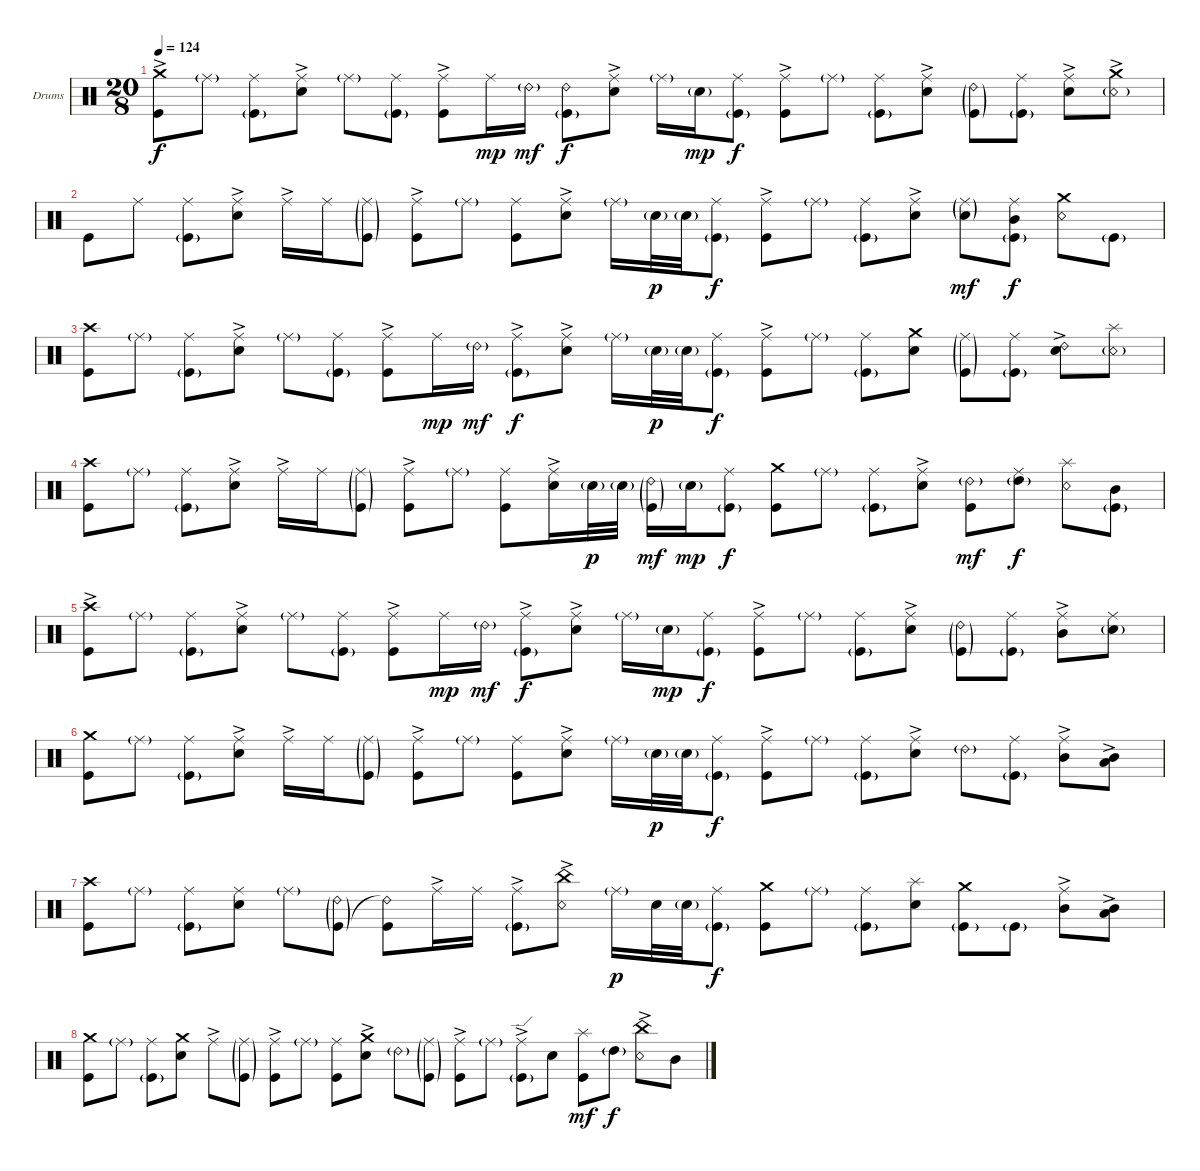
\bracketExtendMode groupsimilarinstruments
\firstSystemTrackNameOrientation horizontal
\otherSystemsTrackNameOrientation horizontal
\track ("Drumkit" "Drums") {instrument percussion}
\staff {score}
\articulation defaults
\ts (20 8)
\tempo 124
\clef neutral
\ks c
("Kick (hit)" "Crash medium (hit)"{ac}).8{dy f} "Ride (middle)"{g}.8 ("Ride (middle)" "Kick (hit)"{g}).8 ("Ride (middle)"{ac} "Snare (hit) 2").8 "Ride (middle)"{g}.8 ("Ride (middle)" "Kick (hit)"{g}).8 ("Ride (middle)"{ac} "Kick (hit)").8 "Ride (middle)".16{dy mp} "Ride (bell) 2"{g}.16{dy mf} ("Ride (bell) 2" "Kick (hit)"{g}).8{dy f} ("Ride (middle)"{ac} "Snare (hit) 2").8 "Ride (middle)"{g}.16 "Snare (hit) 2"{g}.16{dy mp} ("Ride (middle)" "Kick (hit)"{g}).8{dy f} ("Kick (hit)" "Ride (middle)"{ac}).8 "Ride (middle)"{g}.8 ("Ride (middle)" "Kick (hit)"{g}).8 ("Ride (middle)"{ac} "Snare (hit) 2").8 ("Ride (bell) 2"{g} "Kick (hit)"{g}).8 ("Ride (middle)" "Kick (hit)"{g}).8 ("Ride (middle)"{ac} "Snare (hit) 2").8 ("Snare (rim shot)"{g} "Crash medium (hit)"{ac}).8 |
"Kick (hit)".8 "Ride (middle)".8 ("Ride (middle)" "Kick (hit)"{g}).8 ("Ride (middle)"{ac} "Snare (hit) 2").8 "Ride (middle)"{ac}.16 "Ride (middle)".16 ("Ride (middle)"{g} "Kick (hit)"{g}).8 ("Ride (middle)"{ac} "Kick (hit)").8 "Ride (middle)"{g}.8 ("Ride (middle)" "Kick (hit)").8 ("Ride (middle)"{ac} "Snare (hit) 2").8 "Ride (middle)"{g}.16 "Snare (hit) 2"{g}.32{dy p} "Snare (hit) 2"{g}.32 ("Ride (middle)" "Kick (hit)"{g}).8{dy f} ("Kick (hit)" "Ride (middle)"{ac}).8 "Ride (middle)"{g}.8 ("Ride (middle)" "Kick (hit)"{g}).8 ("Ride (middle)"{ac} "Snare (hit) 2").8 ("Ride (middle)"{g} "Snare (hit) 2"{g}).8{dy mf} ("Ride (middle)" "Kick (hit)"{g} "Mid Tom (hit)").8{dy f} ("Snare (rim shot)" "Crash medium (hit)").8 "Kick (hit)"{g}.8 |
("Kick (hit)" "Crash high (hit)").8 "Ride (middle)"{g}.8 ("Ride (middle)" "Kick (hit)"{g}).8 ("Ride (middle)"{ac} "Snare (hit) 2").8 "Ride (middle)"{g}.8 ("Ride (middle)" "Kick (hit)"{g}).8 ("Ride (middle)"{ac} "Kick (hit)").8 "Ride (middle)".16{dy mp} "Ride (bell) 2"{g}.16{dy mf} ("Ride (middle)"{ac} "Kick (hit)"{g}).8{dy f} ("Ride (middle)"{ac} "Snare (hit) 2").8 "Ride (middle)"{g}.16 "Snare (hit) 2"{g}.32{dy p} "Snare (hit) 2"{g}.32 ("Ride (middle)" "Kick (hit)"{g}).8{dy f} ("Kick (hit)" "Ride (middle)"{ac}).8 "Ride (middle)"{g}.8 ("Ride (middle)" "Kick (hit)"{g}).8 ("Snare (hit) 2" "Crash medium (hit)").8 ("Ride (middle)"{g} "Kick (hit)"{g}).8 ("Ride (middle)" "Kick (hit)"{g}).8 ("Ride (bell) 2"{ac} "Snare (hit) 2").8 ("Snare (rim shot)"{g} "Splash (hit)").8 |
("Kick (hit)" "Crash high (hit)").8 "Ride (middle)"{g}.8 ("Ride (middle)" "Kick (hit)"{g}).8 ("Ride (middle)"{ac} "Snare (hit) 2").8 "Ride (middle)"{ac}.16 "Ride (middle)".16 ("Ride (middle)"{g} "Kick (hit)"{g}).8 ("Ride (middle)"{ac} "Kick (hit)").8 "Ride (middle)"{g}.8 ("Ride (middle)" "Kick (hit)").8 ("Ride (middle)"{ac} "Snare (hit) 2").16 "Snare (hit) 2"{g}.32{dy p} "Snare (hit) 2"{g}.32 ("Ride (bell) 2"{g} "Kick (hit)"{g}).16{dy mf} "Snare (hit) 2"{g}.16{dy mp} ("Ride (middle)" "Kick (hit)"{g}).8{dy f} ("Crash medium (hit)" "Kick (hit)").8 "Ride (middle)"{g}.8 ("Ride (middle)" "Kick (hit)"{g}).8 ("Ride (middle)"{ac} "Snare (hit) 2").8 ("Ride (bell) 2"{g} "Kick (hit)").8{dy mf} ("High Tom (hit)"{g} "Ride (middle)").8{dy f} ("Snare (rim shot)" "Splash (hit)").8 ("Kick (hit)"{g} "Mid Tom (hit)").8 |
("Kick (hit)" "Crash high (hit)"{ac}).8 "Ride (middle)"{g}.8 ("Ride (middle)" "Kick (hit)"{g}).8 ("Ride (middle)"{ac} "Snare (hit) 2").8 "Ride (middle)"{g}.8 ("Ride (middle)" "Kick (hit)"{g}).8 ("Ride (middle)"{ac} "Kick (hit)").8 "Ride (middle)".16{dy mp} "Ride (bell) 2"{g}.16{dy mf} ("Ride (middle)"{ac} "Kick (hit)"{g}).8{dy f} ("Ride (middle)"{ac} "Snare (hit) 2").8 "Ride (middle)"{g}.16 "Snare (hit) 2"{g}.16{dy mp} ("Ride (middle)" "Kick (hit)"{g}).8{dy f} ("Kick (hit)" "Ride (middle)"{ac}).8 "Ride (middle)"{g}.8 ("Ride (middle)" "Kick (hit)"{g}).8 ("Ride (middle)"{ac} "Snare (hit) 2").8 ("Ride (bell) 2"{g} "Kick (hit)"{g}).8 ("Ride (middle)" "Kick (hit)"{g}).8 ("Ride (middle)"{ac} "Mid Tom (hit)").8 ("Ride (middle)" "Snare (hit) 2"{g}).8 |
("Kick (hit)" "Crash medium (hit)").8 "Ride (middle)"{g}.8 ("Ride (middle)" "Kick (hit)"{g}).8 ("Ride (middle)"{ac} "Snare (hit) 2").8 "Ride (middle)"{ac}.16 "Ride (middle)".16 ("Ride (middle)"{g} "Kick (hit)"{g}).8 ("Ride (middle)"{ac} "Kick (hit)").8 "Ride (middle)"{g}.8 ("Ride (middle)" "Kick (hit)").8 ("Ride (middle)"{ac} "Snare (hit) 2").8 "Ride (middle)"{g}.16 "Snare (hit) 2"{g}.32{dy p} "Snare (hit) 2"{g}.32 ("Ride (middle)" "Kick (hit)"{g}).8{dy f} ("Kick (hit)" "Ride (middle)"{ac}).8 "Ride (middle)"{g}.8 ("Ride (middle)" "Kick (hit)"{g}).8 ("Ride (middle)"{ac} "Snare (hit) 2").8 "Ride (bell) 2"{g}.8 ("Ride (middle)" "Kick (hit)"{g}).8 ("Ride (middle)"{ac} "Mid Tom (hit)").8 ("Mid Tom (hit)" "Low Tom (hit)"{ac}).8 |
("Kick (hit)" "Crash high (hit)").8 "Ride (middle)"{g}.8 ("Ride (middle)" "Kick (hit)"{g}).8 ("Snare (hit) 2" "Ride (middle)").8 "Ride (middle)"{g}.8 ("Ride (bell) 2"{g} "Kick (hit)"{g}).8 ("Kick (hit)" "Ride (bell) 2"{t}).8 "Ride (middle)"{ac}.16 "Ride (middle)".16 ("Ride (middle)"{ac} "Kick (hit)"{g}).8 ("Snare (rim shot)" "China (hit)"{ac}).8 "Ride (middle)"{g}.16{dy p} "Snare (hit) 2".32 "Snare (hit) 2"{g}.32 ("Ride (middle)" "Kick (hit)"{g}).8{dy f} ("Kick (hit)" "Crash medium (hit)").8 "Ride (middle)"{g}.8 ("Ride (middle)" "Kick (hit)"{g}).8 ("Snare (hit) 2" "Splash (hit)").8 ("Kick (hit)"{g} "Crash medium (hit)").8 "Kick (hit)"{g}.8 ("Ride (middle)"{ac} "Mid Tom (hit)").8 ("Mid Tom (hit)" "Low Tom (hit)"{ac}).8 |
("Kick (hit)" "Crash medium (hit)").8 "Ride (middle)"{g}.8 ("Ride (middle)" "Kick (hit)"{g}).8 ("Snare (hit) 2" "Crash medium (hit)").8 "Ride (middle)"{ac}.8 ("Ride (middle)"{g} "Kick (hit)"{g}).8 ("Ride (middle)"{ac} "Kick (hit)").8 "Ride (middle)"{g}.8 ("Ride (middle)" "Kick (hit)").8 ("Snare (hit) 2" "Crash medium (hit)"{ac}).8 "Ride (bell) 2"{g}.8 ("Ride (middle)"{g} "Kick (hit)"{g}).8 ("Ride (middle)"{ac} "Kick (hit)").8 "Ride (middle)"{g}.8 ("Ride (edge)"{ac} "Kick (hit)"{g}).8 "Snare (hit) 2".8 ("Kick (hit)" "Splash (hit)").8{dy mf} "High Tom (hit)"{g}.8{dy f} ("Snare (rim shot)" "China (hit)"{ac}).8 "Mid Tom (hit)".8
